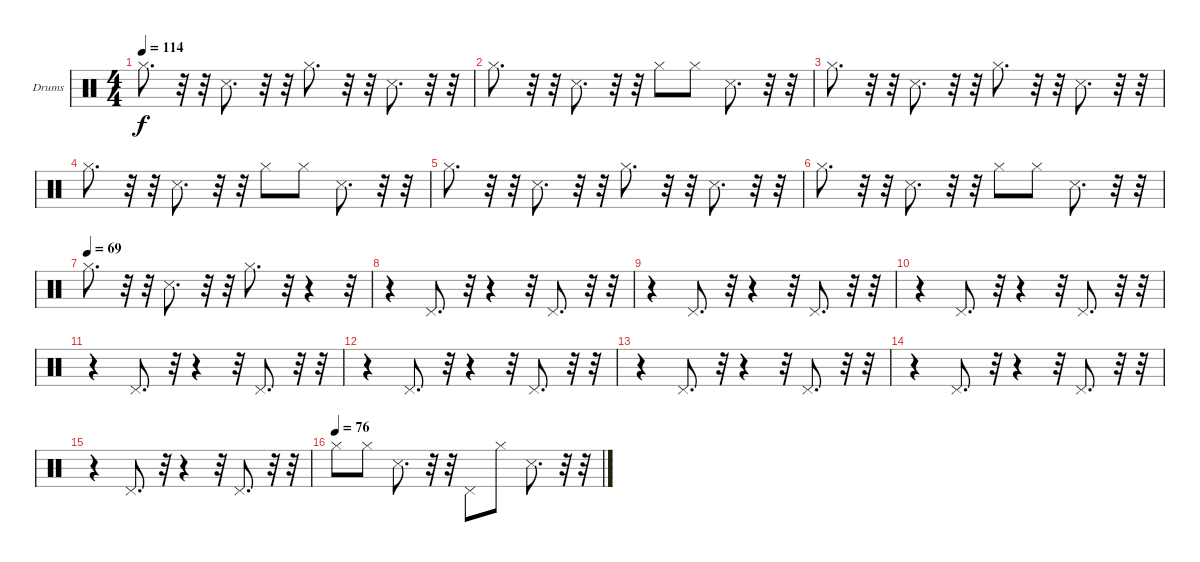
\bracketExtendMode groupsimilarinstruments
\firstSystemTrackNameOrientation horizontal
\otherSystemsTrackNameOrientation horizontal
\track ("Drumkit" "Drums") {instrument percussion}
\staff {score}
\articulation defaults
\ts (4 4)
\tempo 114
\clef neutral
\ks c "Hi-Hat (closed)".8{d dy f}
r.32 r.32 "Snare (side stick) 3".8{d} r.32 r.32 "Hi-Hat (closed)".8{d} r.32 r.32 "Snare (side stick) 3".8{d} r.32 r.32 |
"Hi-Hat (closed)".8{d} r.32 r.32 "Snare (side stick) 3".8{d} r.32 r.32 "Hi-Hat (closed)".8 "Hi-Hat (closed)".8 "Snare (side stick) 3".8{d} r.32 r.32 |
"Hi-Hat (closed)".8{d} r.32 r.32 "Snare (side stick) 3".8{d} r.32 r.32 "Hi-Hat (closed)".8{d} r.32 r.32 "Snare (side stick) 3".8{d} r.32 r.32 |
"Hi-Hat (closed)".8{d} r.32 r.32 "Snare (side stick) 3".8{d} r.32 r.32 "Hi-Hat (closed)".8 "Hi-Hat (closed)".8 "Snare (side stick) 3".8{d} r.32 r.32 |
"Hi-Hat (closed)".8{d} r.32 r.32 "Snare (side stick) 3".8{d} r.32 r.32 "Hi-Hat (closed)".8{d} r.32 r.32 "Snare (side stick) 3".8{d} r.32 r.32 |
"Hi-Hat (closed)".8{d} r.32 r.32 "Snare (side stick) 3".8{d} r.32 r.32 "Hi-Hat (closed)".8 "Hi-Hat (closed)".8 "Snare (side stick) 3".8{d} r.32 r.32 |
\tempo (69)
"Hi-Hat (closed)".8{d} r.32 r.32 "Snare (side stick) 3".8{d} r.32 r.32 "Hi-Hat (closed)".8{d} r.32 r.4 r.32 |
r.4 "Pedal Hi-Hat (hit)".8{d} r.32 r.4 r.32 "Pedal Hi-Hat (hit)".8{d} r.32 r.32 |
r.4 "Pedal Hi-Hat (hit)".8{d} r.32 r.4 r.32 "Pedal Hi-Hat (hit)".8{d} r.32 r.32 |
r.4 "Pedal Hi-Hat (hit)".8{d} r.32 r.4 r.32 "Pedal Hi-Hat (hit)".8{d} r.32 r.32 |
r.4 "Pedal Hi-Hat (hit)".8{d} r.32 r.4 r.32 "Pedal Hi-Hat (hit)".8{d} r.32 r.32 |
r.4 "Pedal Hi-Hat (hit)".8{d} r.32 r.4 r.32 "Pedal Hi-Hat (hit)".8{d} r.32 r.32 |
r.4 "Pedal Hi-Hat (hit)".8{d} r.32 r.4 r.32 "Pedal Hi-Hat (hit)".8{d} r.32 r.32 |
r.4 "Pedal Hi-Hat (hit)".8{d} r.32 r.4 r.32 "Pedal Hi-Hat (hit)".8{d} r.32 r.32 |
r.4 "Pedal Hi-Hat (hit)".8{d} r.32 r.4 r.32 "Pedal Hi-Hat (hit)".8{d} r.32 r.32 |
\tempo (76)
"Hi-Hat (closed)".8 "Hi-Hat (closed)".8 "Snare (side stick) 3".8{d} r.32 r.32 "Pedal Hi-Hat (hit)".8 "Hi-Hat (closed)".8 "Snare (side stick) 3".8{d} r.32 r.32
